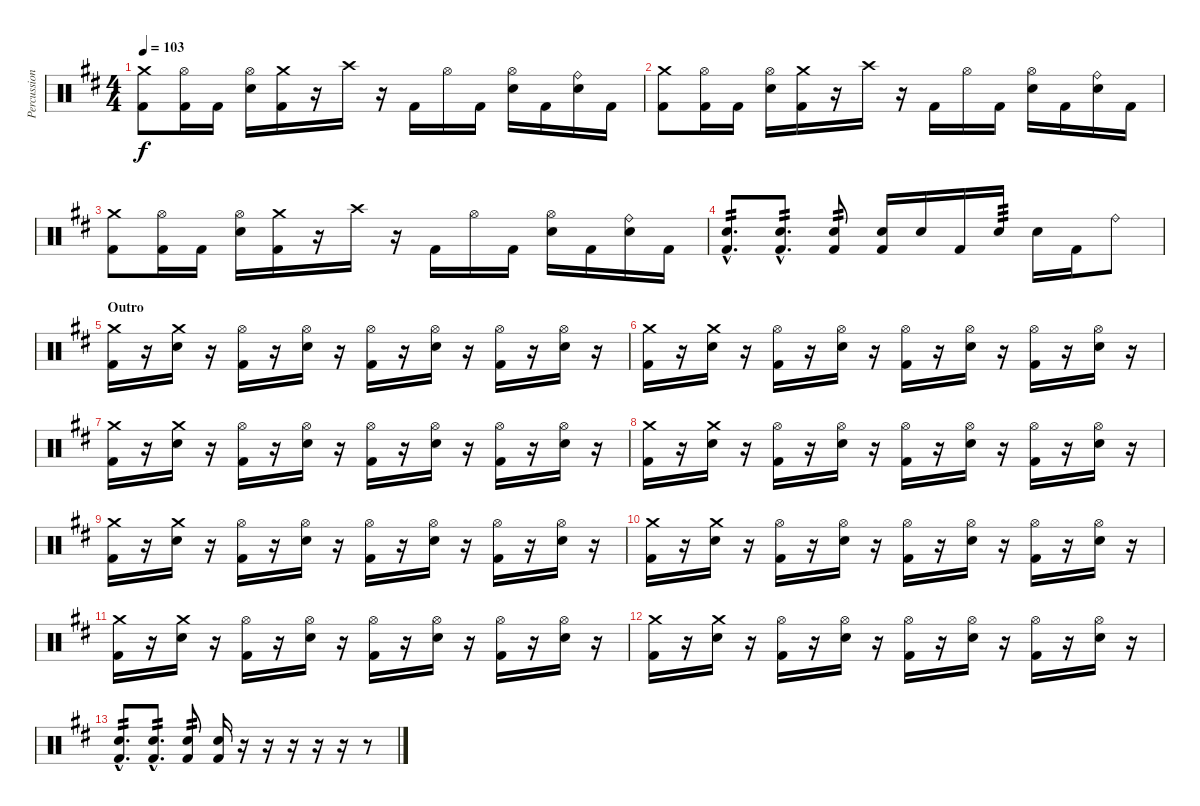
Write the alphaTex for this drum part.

\track ("Percussion" "Percussion") {instrument percussion}
\staff {score}
\articulation defaults
\ts (4 4)
\tempo 103
\clef neutral
\ks d
("Crash medium (hit)" "Kick (hit) 2").8{dy f} ("Hi-Hat (open)" "Kick (hit) 2").16 "Kick (hit) 2".16 ("Hi-Hat (open)" "Snare (hit) 2").16 ("Crash medium (hit)" "Kick (hit) 2").16 r.16 "Crash high (hit)".16 r.16 "Kick (hit) 2".16 "Hi-Hat (open)".16 "Kick (hit) 2".16 ("Hi-Hat (open)" "Snare (hit) 2").16 "Kick (hit) 2".16 ("Ride (bell)" "Snare (hit) 2").16 "Kick (hit) 2".16 |
("Crash medium (hit)" "Kick (hit) 2").8 ("Hi-Hat (open)" "Kick (hit) 2").16 "Kick (hit) 2".16 ("Hi-Hat (open)" "Snare (hit) 2").16 ("Crash medium (hit)" "Kick (hit) 2").16 r.16 "Crash high (hit)".16 r.16 "Kick (hit) 2".16 "Hi-Hat (open)".16 "Kick (hit) 2".16 ("Hi-Hat (open)" "Snare (hit) 2").16 "Kick (hit) 2".16 ("Ride (bell)" "Snare (hit) 2").16 "Kick (hit) 2".16 |
("Crash medium (hit)" "Kick (hit) 2").8 ("Hi-Hat (open)" "Kick (hit) 2").16 "Kick (hit) 2".16 ("Hi-Hat (open)" "Snare (hit) 2").16 ("Crash medium (hit)" "Kick (hit) 2").16 r.16 "Crash high (hit)".16 r.16 "Kick (hit) 2".16 "Hi-Hat (open)".16 "Kick (hit) 2".16 ("Hi-Hat (open)" "Snare (hit) 2").16 "Kick (hit) 2".16 ("Ride (bell)" "Snare (hit) 2").16 "Kick (hit) 2".16 |
("Snare (hit) 2"{hac} "Kick (hit) 2"{hac}).8{d tp 2} ("Snare (hit) 2"{hac} "Kick (hit) 2"{hac}).8{d tp 2} ("Snare (hit) 2" "Kick (hit) 2").8{tp 2} ("Snare (hit) 2" "Kick (hit) 2").16 "Snare (hit) 2".16 "Kick (hit) 2".16 "Snare (hit) 2".16{tp 3} "Snare (hit) 2".16 "Kick (hit) 2".16 "Ride (bell)".8 |
\section ("" "Outro")
("Crash medium (hit)" "Kick (hit) 2").16 r.16 ("Crash medium (hit)" "Snare (hit) 2").16 r.16 ("Hi-Hat (open)" "Kick (hit) 2").16 r.16 ("Hi-Hat (open)" "Snare (hit) 2").16 r.16 ("Hi-Hat (open)" "Kick (hit) 2").16 r.16 ("Hi-Hat (open)" "Snare (hit) 2").16 r.16 ("Hi-Hat (open)" "Kick (hit) 2").16 r.16 ("Hi-Hat (open)" "Snare (hit) 2").16 r.16 |
("Crash medium (hit)" "Kick (hit) 2").16 r.16 ("Crash medium (hit)" "Snare (hit) 2").16 r.16 ("Hi-Hat (open)" "Kick (hit) 2").16 r.16 ("Hi-Hat (open)" "Snare (hit) 2").16 r.16 ("Hi-Hat (open)" "Kick (hit) 2").16 r.16 ("Hi-Hat (open)" "Snare (hit) 2").16 r.16 ("Hi-Hat (open)" "Kick (hit) 2").16 r.16 ("Hi-Hat (open)" "Snare (hit) 2").16 r.16 |
("Crash medium (hit)" "Kick (hit) 2").16 r.16 ("Crash medium (hit)" "Snare (hit) 2").16 r.16 ("Hi-Hat (open)" "Kick (hit) 2").16 r.16 ("Hi-Hat (open)" "Snare (hit) 2").16 r.16 ("Hi-Hat (open)" "Kick (hit) 2").16 r.16 ("Hi-Hat (open)" "Snare (hit) 2").16 r.16 ("Hi-Hat (open)" "Kick (hit) 2").16 r.16 ("Hi-Hat (open)" "Snare (hit) 2").16 r.16 |
("Crash medium (hit)" "Kick (hit) 2").16 r.16 ("Crash medium (hit)" "Snare (hit) 2").16 r.16 ("Hi-Hat (open)" "Kick (hit) 2").16 r.16 ("Hi-Hat (open)" "Snare (hit) 2").16 r.16 ("Hi-Hat (open)" "Kick (hit) 2").16 r.16 ("Hi-Hat (open)" "Snare (hit) 2").16 r.16 ("Hi-Hat (open)" "Kick (hit) 2").16 r.16 ("Hi-Hat (open)" "Snare (hit) 2").16 r.16 |
("Crash medium (hit)" "Kick (hit) 2").16{volume 0} r.16 ("Crash medium (hit)" "Snare (hit) 2").16 r.16 ("Hi-Hat (open)" "Kick (hit) 2").16 r.16 ("Hi-Hat (open)" "Snare (hit) 2").16 r.16 ("Hi-Hat (open)" "Kick (hit) 2").16 r.16 ("Hi-Hat (open)" "Snare (hit) 2").16 r.16 ("Hi-Hat (open)" "Kick (hit) 2").16 r.16 ("Hi-Hat (open)" "Snare (hit) 2").16 r.16 |
("Crash medium (hit)" "Kick (hit) 2").16 r.16 ("Crash medium (hit)" "Snare (hit) 2").16 r.16 ("Hi-Hat (open)" "Kick (hit) 2").16 r.16 ("Hi-Hat (open)" "Snare (hit) 2").16 r.16 ("Hi-Hat (open)" "Kick (hit) 2").16 r.16 ("Hi-Hat (open)" "Snare (hit) 2").16 r.16 ("Hi-Hat (open)" "Kick (hit) 2").16 r.16 ("Hi-Hat (open)" "Snare (hit) 2").16 r.16 |
("Crash medium (hit)" "Kick (hit) 2").16 r.16 ("Crash medium (hit)" "Snare (hit) 2").16 r.16 ("Hi-Hat (open)" "Kick (hit) 2").16 r.16 ("Hi-Hat (open)" "Snare (hit) 2").16 r.16 ("Hi-Hat (open)" "Kick (hit) 2").16 r.16 ("Hi-Hat (open)" "Snare (hit) 2").16 r.16 ("Hi-Hat (open)" "Kick (hit) 2").16 r.16 ("Hi-Hat (open)" "Snare (hit) 2").16 r.16 |
("Crash medium (hit)" "Kick (hit) 2").16 r.16 ("Crash medium (hit)" "Snare (hit) 2").16 r.16 ("Hi-Hat (open)" "Kick (hit) 2").16 r.16 ("Hi-Hat (open)" "Snare (hit) 2").16 r.16 ("Hi-Hat (open)" "Kick (hit) 2").16 r.16 ("Hi-Hat (open)" "Snare (hit) 2").16 r.16 ("Hi-Hat (open)" "Kick (hit) 2").16 r.16 ("Hi-Hat (open)" "Snare (hit) 2").16 r.16 |
("Snare (hit) 2"{hac} "Kick (hit) 2"{hac}).8{d tp 2} ("Snare (hit) 2"{hac} "Kick (hit) 2"{hac}).8{d tp 2} ("Snare (hit) 2" "Kick (hit) 2").8{tp 2} ("Snare (hit) 2" "Kick (hit) 2").16 r.16 r.16 r.16 r.16 r.16 r.8
